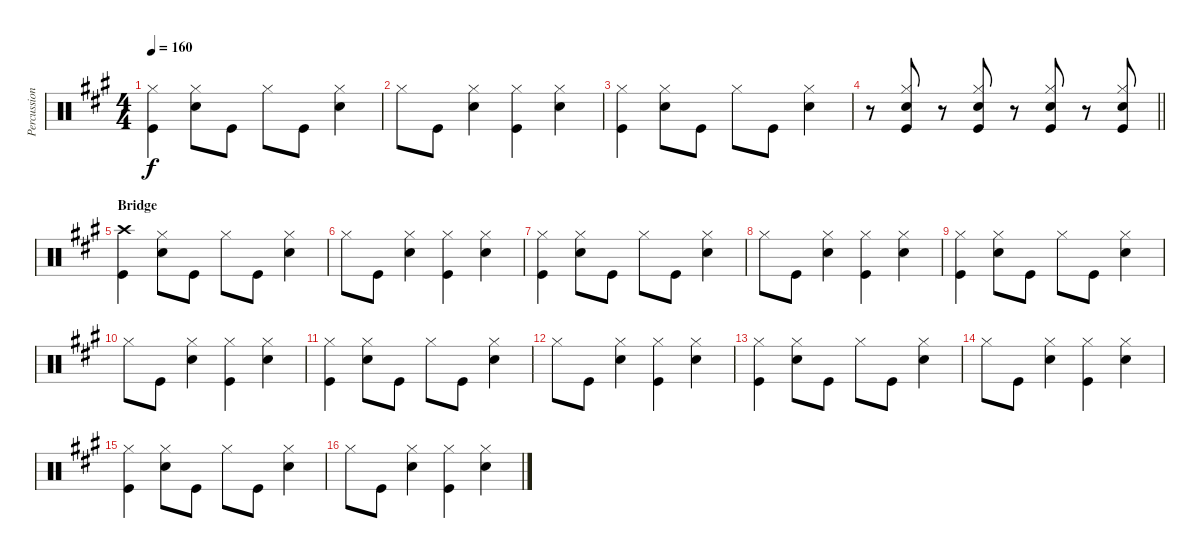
\track ("Percussion" "Percussion") {instrument percussion}
\staff {score}
\articulation defaults
\ts (4 4)
\tempo 160
\clef neutral
\ks a
("Kick (hit)" "Hi-Hat (closed)").4{dy f} ("Snare (hit) 2" "Hi-Hat (closed)").8 "Kick (hit)".8 "Hi-Hat (closed)".8 "Kick (hit)".8 ("Snare (hit) 2" "Hi-Hat (closed)").4 |
"Hi-Hat (closed)".8 "Kick (hit)".8 ("Snare (hit) 2" "Hi-Hat (closed)").4 ("Kick (hit)" "Hi-Hat (closed)").4 ("Snare (hit) 2" "Hi-Hat (closed)").4 |
("Kick (hit)" "Hi-Hat (closed)").4 ("Snare (hit) 2" "Hi-Hat (closed)").8 "Kick (hit)".8 "Hi-Hat (closed)".8 "Kick (hit)".8 ("Snare (hit) 2" "Hi-Hat (closed)").4 |
\barLineRight lightlight
r.8 ("Kick (hit)" "Snare (hit) 2" "Hi-Hat (closed)").8 r.8 ("Kick (hit)" "Snare (hit) 2" "Hi-Hat (closed)").8 r.8 ("Hi-Hat (closed)" "Kick (hit)" "Snare (hit) 2").8 r.8 ("Hi-Hat (closed)" "Kick (hit)" "Snare (hit) 2").8 |
\section ("" "Bridge")
("Kick (hit)" "Crash high (hit)").4 ("Snare (hit) 2" "Hi-Hat (closed)").8 "Kick (hit)".8 "Hi-Hat (closed)".8 "Kick (hit)".8 ("Snare (hit) 2" "Hi-Hat (closed)").4 |
"Hi-Hat (closed)".8 "Kick (hit)".8 ("Snare (hit) 2" "Hi-Hat (closed)").4 ("Kick (hit)" "Hi-Hat (closed)").4 ("Snare (hit) 2" "Hi-Hat (closed)").4 |
("Kick (hit)" "Hi-Hat (closed)").4 ("Snare (hit) 2" "Hi-Hat (closed)").8 "Kick (hit)".8 "Hi-Hat (closed)".8 "Kick (hit)".8 ("Snare (hit) 2" "Hi-Hat (closed)").4 |
"Hi-Hat (closed)".8 "Kick (hit)".8 ("Snare (hit) 2" "Hi-Hat (closed)").4 ("Kick (hit)" "Hi-Hat (closed)").4 ("Snare (hit) 2" "Hi-Hat (closed)").4 |
("Hi-Hat (closed)" "Kick (hit)").4 ("Snare (hit) 2" "Hi-Hat (closed)").8 "Kick (hit)".8 "Hi-Hat (closed)".8 "Kick (hit)".8 ("Snare (hit) 2" "Hi-Hat (closed)").4 |
"Hi-Hat (closed)".8 "Kick (hit)".8 ("Snare (hit) 2" "Hi-Hat (closed)").4 ("Kick (hit)" "Hi-Hat (closed)").4 ("Snare (hit) 2" "Hi-Hat (closed)").4 |
("Hi-Hat (closed)" "Kick (hit)").4 ("Snare (hit) 2" "Hi-Hat (closed)").8 "Kick (hit)".8 "Hi-Hat (closed)".8 "Kick (hit)".8 ("Snare (hit) 2" "Hi-Hat (closed)").4 |
"Hi-Hat (closed)".8 "Kick (hit)".8 ("Snare (hit) 2" "Hi-Hat (closed)").4 ("Kick (hit)" "Hi-Hat (closed)").4 ("Snare (hit) 2" "Hi-Hat (closed)").4 |
("Hi-Hat (closed)" "Kick (hit)").4 ("Snare (hit) 2" "Hi-Hat (closed)").8 "Kick (hit)".8 "Hi-Hat (closed)".8 "Kick (hit)".8 ("Snare (hit) 2" "Hi-Hat (closed)").4 |
"Hi-Hat (closed)".8 "Kick (hit)".8 ("Snare (hit) 2" "Hi-Hat (closed)").4 ("Kick (hit)" "Hi-Hat (closed)").4 ("Snare (hit) 2" "Hi-Hat (closed)").4 |
("Hi-Hat (closed)" "Kick (hit)").4 ("Snare (hit) 2" "Hi-Hat (closed)").8 "Kick (hit)".8 "Hi-Hat (closed)".8 "Kick (hit)".8 ("Snare (hit) 2" "Hi-Hat (closed)").4 |
"Hi-Hat (closed)".8 "Kick (hit)".8 ("Snare (hit) 2" "Hi-Hat (closed)").4 ("Kick (hit)" "Hi-Hat (closed)").4 ("Snare (hit) 2" "Hi-Hat (closed)").4
